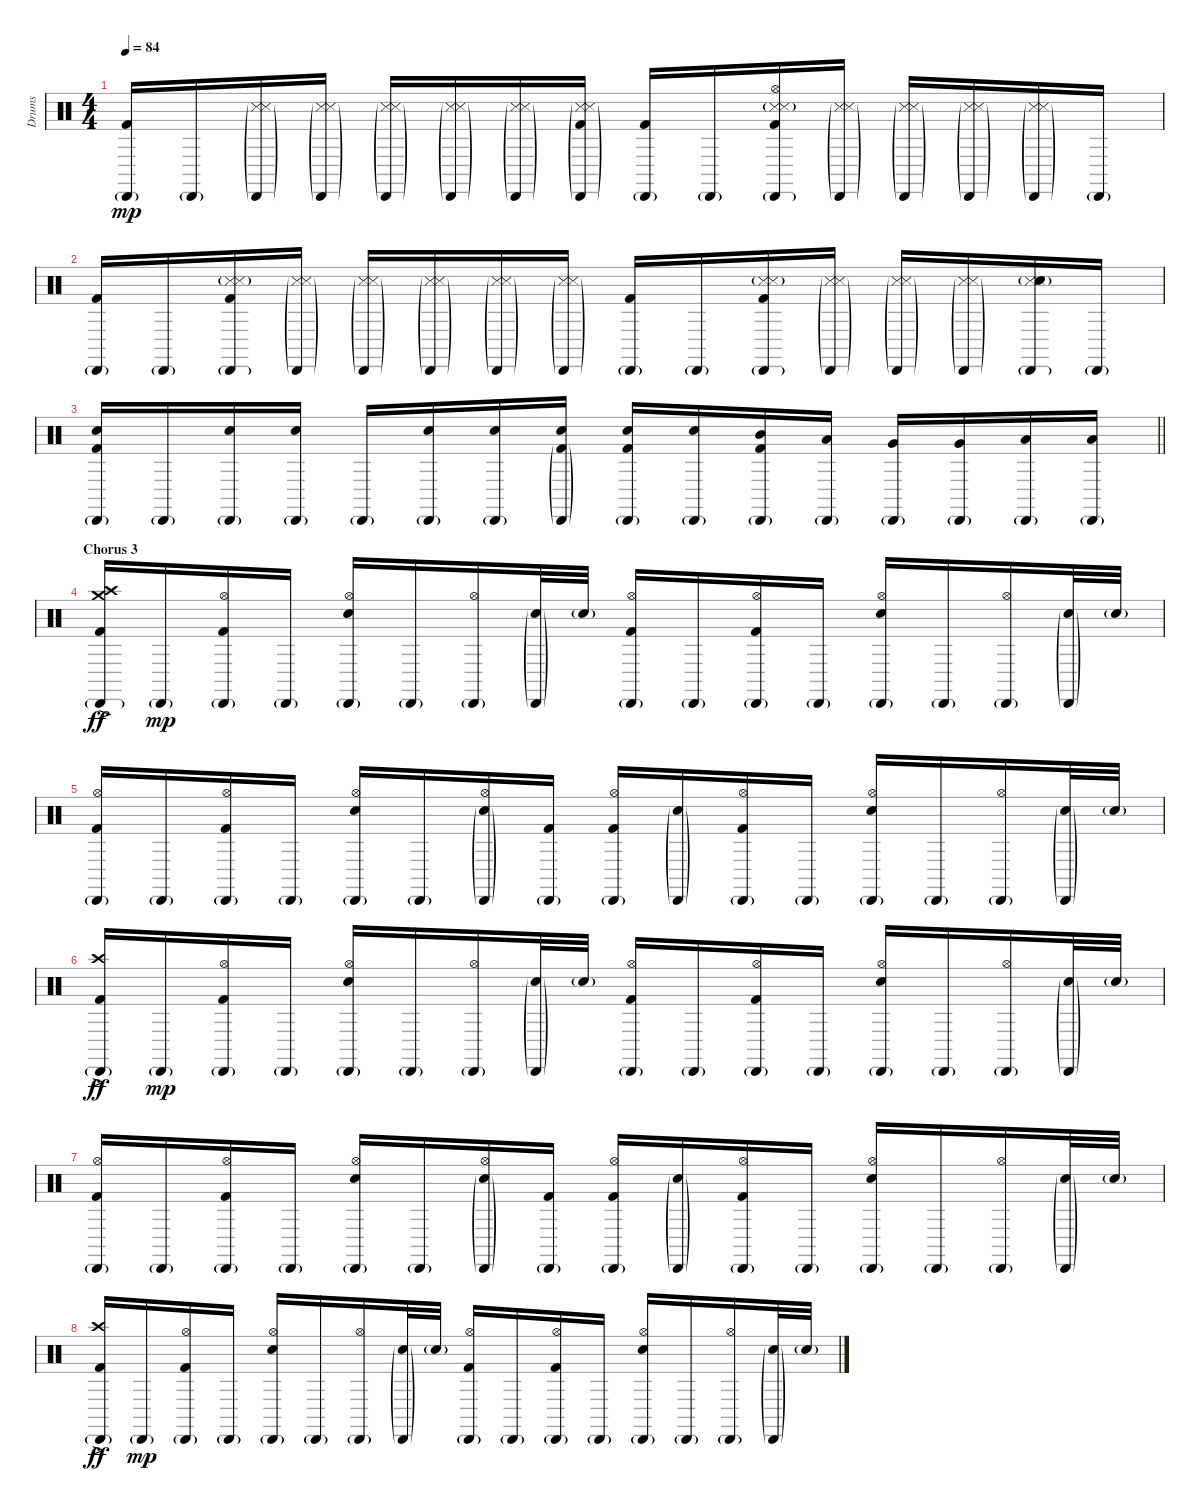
\track ("Drums" "Drums") {instrument percussion}
\staff {score}
\articulation defaults
\ts (4 4)
\tempo 84
\clef neutral
\ks c
("Cabasa (hit)"{g} "Kick (hit) 2").16{dy mp} "Cabasa (hit)"{g}.16 ("Cabasa (hit)"{g} "Metronome (hit)"{g} "Snare (side stick) 3"{g}).16 ("Cabasa (hit)"{g} "Metronome (hit)"{g} "Snare (side stick) 3"{g}).16 ("Cabasa (hit)"{g} "Metronome (hit)"{g} "Snare (side stick) 3"{g}).16 ("Cabasa (hit)"{g} "Metronome (hit)"{g} "Snare (side stick) 3"{g}).16 ("Cabasa (hit)"{g} "Metronome (hit)"{g} "Snare (side stick) 3"{g}).16 ("Cabasa (hit)"{g} "Metronome (hit)"{g} "Snare (side stick) 3"{g} "Kick (hit) 2"{g}).16 ("Cabasa (hit)"{g} "Kick (hit) 2").16 "Cabasa (hit)"{g}.16 ("Hi-Hat (open)" "Cabasa (hit)"{g} "Metronome (hit)"{g} "Snare (side stick) 3"{g} "Kick (hit) 2").16 ("Cabasa (hit)"{g} "Metronome (hit)"{g} "Snare (side stick) 3"{g}).16 ("Cabasa (hit)"{g} "Metronome (hit)"{g} "Snare (side stick) 3"{g}).16 ("Cabasa (hit)"{g} "Metronome (hit)"{g} "Snare (side stick) 3"{g}).16 ("Cabasa (hit)"{g} "Metronome (hit)"{g} "Snare (side stick) 3"{g}).16 "Cabasa (hit)"{g}.16 |
("Cabasa (hit)"{g} "Kick (hit) 2").16 "Cabasa (hit)"{g}.16 ("Cabasa (hit)"{g} "Metronome (hit)"{g} "Snare (side stick) 3"{g} "Kick (hit) 2").16 ("Cabasa (hit)"{g} "Metronome (hit)"{g} "Snare (side stick) 3"{g}).16 ("Cabasa (hit)"{g} "Metronome (hit)"{g} "Snare (side stick) 3"{g}).16 ("Cabasa (hit)"{g} "Metronome (hit)"{g} "Snare (side stick) 3"{g}).16 ("Cabasa (hit)"{g} "Metronome (hit)"{g} "Snare (side stick) 3"{g}).16 ("Cabasa (hit)"{g} "Metronome (hit)"{g} "Snare (side stick) 3"{g}).16 ("Cabasa (hit)"{g} "Kick (hit) 2").16 "Cabasa (hit)"{g}.16 ("Cabasa (hit)"{g} "Metronome (hit)"{g} "Snare (side stick) 3"{g} "Kick (hit) 2").16 ("Cabasa (hit)"{g} "Metronome (hit)"{g} "Snare (side stick) 3"{g}).16 ("Cabasa (hit)"{g} "Metronome (hit)"{g} "Snare (side stick) 3"{g}).16 ("Cabasa (hit)"{g} "Metronome (hit)"{g} "Snare (side stick) 3"{g}).16 ("Cabasa (hit)"{g} "Metronome (hit)"{g} "Snare (side stick) 3"{g} "Electric Snare (hit)").16{volume 16} "Cabasa (hit)"{g}.16 |
\barLineRight lightlight
("Cabasa (hit)"{g} "Electric Snare (hit)" "Kick (hit) 2").16 "Cabasa (hit)"{g}.16 ("Cabasa (hit)"{g} "Electric Snare (hit)").16 ("Cabasa (hit)"{g} "Electric Snare (hit)").16 "Cabasa (hit)"{g}.16 ("Cabasa (hit)"{g} "Electric Snare (hit)").16 ("Cabasa (hit)"{g} "Electric Snare (hit)").16 ("Cabasa (hit)"{g} "Electric Snare (hit)" "Kick (hit) 2"{g}).16 ("Cabasa (hit)"{g} "Electric Snare (hit)" "Kick (hit) 2").16 ("Cabasa (hit)"{g} "Electric Snare (hit)").16 ("Cabasa (hit)"{g} "Mid Tom (hit)" "Kick (hit) 2").16 ("Cabasa (hit)"{g} "Low Tom (hit)").16 ("Cabasa (hit)"{g} "Very Low Tom (hit)").16 ("Cabasa (hit)"{g} "Very Low Tom (hit)").16 ("Cabasa (hit)"{g} "Low Floor Tom (hit)").16 ("Cabasa (hit)"{g} "Low Floor Tom (hit)").16 |
\section ("" "Chorus 3")
("Crash high (hit)" "Crash medium (hit)" "Cabasa (hit)"{g} "Kick (hit) 2"{ac}).16{dy ff volume 13} "Cabasa (hit)"{g}.16{dy mp} ("Hi-Hat (open)" "Cabasa (hit)"{g} "Kick (hit) 2").16 "Cabasa (hit)"{g}.16 ("Hi-Hat (open)" "Cabasa (hit)"{g} "Electric Snare (hit)").16 "Cabasa (hit)"{g}.16 ("Hi-Hat (open)" "Cabasa (hit)"{g}).16 ("Cabasa (hit)"{g} "Electric Snare (hit)"{g}).32 "Electric Snare (hit)"{g}.32 ("Hi-Hat (open)" "Cabasa (hit)"{g} "Kick (hit) 2").16 "Cabasa (hit)"{g}.16 ("Hi-Hat (open)" "Cabasa (hit)"{g} "Kick (hit) 2").16 "Cabasa (hit)"{g}.16 ("Hi-Hat (open)" "Cabasa (hit)"{g} "Electric Snare (hit)").16 "Cabasa (hit)"{g}.16 ("Hi-Hat (open)" "Cabasa (hit)"{g}).16 ("Cabasa (hit)"{g} "Electric Snare (hit)"{g}).32 "Electric Snare (hit)"{g}.32 |
("Hi-Hat (open)" "Cabasa (hit)"{g} "Kick (hit) 2").16 "Cabasa (hit)"{g}.16 ("Hi-Hat (open)" "Cabasa (hit)"{g} "Kick (hit) 2").16 "Cabasa (hit)"{g}.16 ("Hi-Hat (open)" "Cabasa (hit)"{g} "Electric Snare (hit)").16 "Cabasa (hit)"{g}.16 ("Hi-Hat (open)" "Cabasa (hit)"{g} "Electric Snare (hit)"{g}).16 ("Cabasa (hit)"{g} "Kick (hit) 2").16 ("Hi-Hat (open)" "Cabasa (hit)"{g} "Kick (hit) 2").16 ("Cabasa (hit)"{g} "Electric Snare (hit)"{g}).16 ("Hi-Hat (open)" "Cabasa (hit)"{g} "Kick (hit) 2").16 "Cabasa (hit)"{g}.16 ("Hi-Hat (open)" "Cabasa (hit)"{g} "Electric Snare (hit)").16 "Cabasa (hit)"{g}.16 ("Hi-Hat (open)" "Cabasa (hit)"{g}).16 ("Cabasa (hit)"{g} "Electric Snare (hit)"{g}).32 "Electric Snare (hit)"{g}.32 |
("Crash high (hit)" "Cabasa (hit)"{g} "Kick (hit) 2"{ac}).16{dy ff} "Cabasa (hit)"{g}.16{dy mp} ("Hi-Hat (open)" "Cabasa (hit)"{g} "Kick (hit) 2").16 "Cabasa (hit)"{g}.16 ("Hi-Hat (open)" "Cabasa (hit)"{g} "Electric Snare (hit)").16 "Cabasa (hit)"{g}.16 ("Hi-Hat (open)" "Cabasa (hit)"{g}).16 ("Cabasa (hit)"{g} "Electric Snare (hit)"{g}).32 "Electric Snare (hit)"{g}.32 ("Hi-Hat (open)" "Cabasa (hit)"{g} "Kick (hit) 2").16 "Cabasa (hit)"{g}.16 ("Hi-Hat (open)" "Cabasa (hit)"{g} "Kick (hit) 2").16 "Cabasa (hit)"{g}.16 ("Hi-Hat (open)" "Cabasa (hit)"{g} "Electric Snare (hit)").16 "Cabasa (hit)"{g}.16 ("Hi-Hat (open)" "Cabasa (hit)"{g}).16 ("Cabasa (hit)"{g} "Electric Snare (hit)"{g}).32 "Electric Snare (hit)"{g}.32 |
("Hi-Hat (open)" "Cabasa (hit)"{g} "Kick (hit) 2").16 "Cabasa (hit)"{g}.16 ("Hi-Hat (open)" "Cabasa (hit)"{g} "Kick (hit) 2").16 "Cabasa (hit)"{g}.16 ("Hi-Hat (open)" "Cabasa (hit)"{g} "Electric Snare (hit)").16 "Cabasa (hit)"{g}.16 ("Hi-Hat (open)" "Cabasa (hit)"{g} "Electric Snare (hit)"{g}).16 ("Cabasa (hit)"{g} "Kick (hit) 2").16 ("Hi-Hat (open)" "Cabasa (hit)"{g} "Kick (hit) 2").16 ("Cabasa (hit)"{g} "Electric Snare (hit)"{g}).16 ("Hi-Hat (open)" "Cabasa (hit)"{g} "Kick (hit) 2").16 "Cabasa (hit)"{g}.16 ("Hi-Hat (open)" "Cabasa (hit)"{g} "Electric Snare (hit)").16 "Cabasa (hit)"{g}.16 ("Hi-Hat (open)" "Cabasa (hit)"{g}).16 ("Cabasa (hit)"{g} "Electric Snare (hit)"{g}).32 "Electric Snare (hit)"{g}.32 |
("Crash high (hit)" "Cabasa (hit)"{g} "Kick (hit) 2"{ac}).16{dy ff} "Cabasa (hit)"{g}.16{dy mp} ("Hi-Hat (open)" "Cabasa (hit)"{g} "Kick (hit) 2").16 "Cabasa (hit)"{g}.16 ("Hi-Hat (open)" "Cabasa (hit)"{g} "Electric Snare (hit)").16 "Cabasa (hit)"{g}.16 ("Hi-Hat (open)" "Cabasa (hit)"{g}).16 ("Cabasa (hit)"{g} "Electric Snare (hit)"{g}).32 "Electric Snare (hit)"{g}.32 ("Hi-Hat (open)" "Cabasa (hit)"{g} "Kick (hit) 2").16 "Cabasa (hit)"{g}.16 ("Hi-Hat (open)" "Cabasa (hit)"{g} "Kick (hit) 2").16 "Cabasa (hit)"{g}.16 ("Hi-Hat (open)" "Cabasa (hit)"{g} "Electric Snare (hit)").16 "Cabasa (hit)"{g}.16 ("Hi-Hat (open)" "Cabasa (hit)"{g}).16 ("Cabasa (hit)"{g} "Electric Snare (hit)"{g}).32 "Electric Snare (hit)"{g}.32
